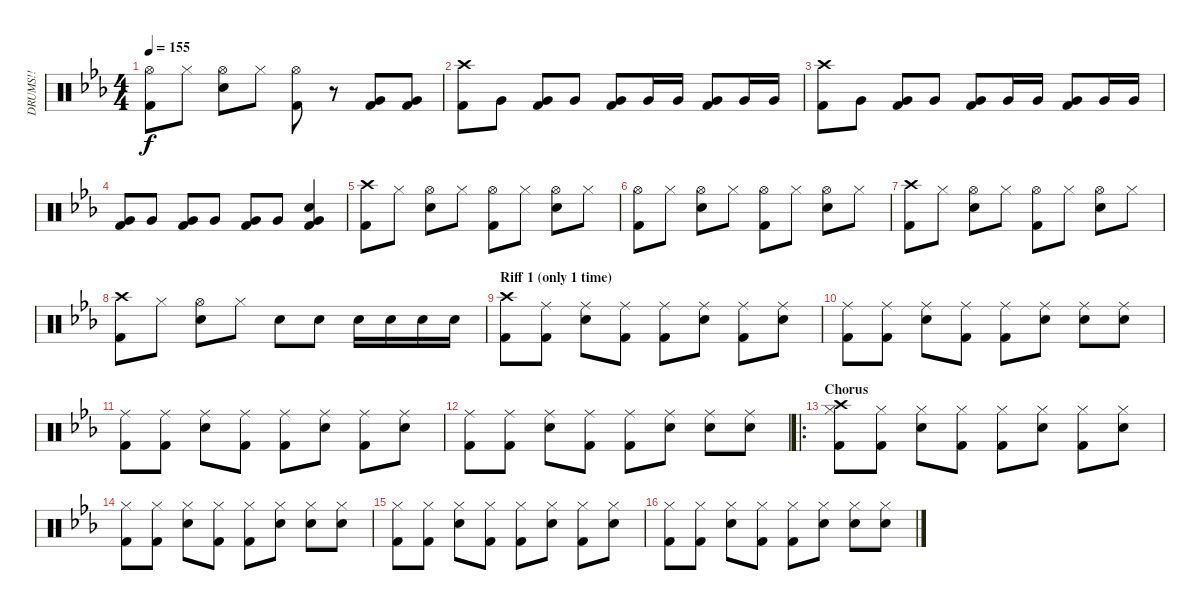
\track ("DRUMS!!" "DRUMS!!") {instrument percussion}
\staff {score}
\articulation defaults
\ts (4 4)
\tempo 155
\clef neutral
\ks eb
("Hi-Hat (open)" "Kick (hit) 2").8{dy f} "Hi-Hat (closed)".8 ("Hi-Hat (open)" "Snare (hit) 2").8 "Hi-Hat (closed)".8 ("Hi-Hat (open)" "Kick (hit) 2").8 r.8 ("Very Low Tom (hit)" "Kick (hit) 2").8 ("Very Low Tom (hit)" "Kick (hit) 2").8 |
("Crash high (hit)" "Kick (hit) 2").8 "Very Low Tom (hit)".8 ("Very Low Tom (hit)" "Kick (hit) 2").8 "Very Low Tom (hit)".8 ("Very Low Tom (hit)" "Kick (hit) 2").8 "Very Low Tom (hit)".16 "Very Low Tom (hit)".16 ("Very Low Tom (hit)" "Kick (hit) 2").8 "Very Low Tom (hit)".16 "Very Low Tom (hit)".16 |
("Crash high (hit)" "Kick (hit) 2").8 "Very Low Tom (hit)".8 ("Very Low Tom (hit)" "Kick (hit) 2").8 "Very Low Tom (hit)".8 ("Very Low Tom (hit)" "Kick (hit) 2").8 "Very Low Tom (hit)".16 "Very Low Tom (hit)".16 ("Very Low Tom (hit)" "Kick (hit) 2").8 "Very Low Tom (hit)".16 "Very Low Tom (hit)".16 |
("Very Low Tom (hit)" "Kick (hit) 2").8 "Very Low Tom (hit)".8 ("Very Low Tom (hit)" "Kick (hit) 2").8 "Very Low Tom (hit)".8 ("Very Low Tom (hit)" "Kick (hit) 2").8 "Very Low Tom (hit)".8 ("Snare (hit) 2" "Very Low Tom (hit)" "Kick (hit) 2").4 |
("Crash high (hit)" "Kick (hit) 2").8 "Hi-Hat (closed)".8 ("Hi-Hat (open)" "Snare (hit) 2").8 "Hi-Hat (closed)".8 ("Hi-Hat (open)" "Kick (hit) 2").8 "Hi-Hat (closed)".8 ("Hi-Hat (open)" "Snare (hit) 2").8 "Hi-Hat (closed)".8 |
("Hi-Hat (open)" "Kick (hit) 2").8 "Hi-Hat (closed)".8 ("Hi-Hat (open)" "Snare (hit) 2").8 "Hi-Hat (closed)".8 ("Hi-Hat (open)" "Kick (hit) 2").8 "Hi-Hat (closed)".8 ("Hi-Hat (open)" "Snare (hit) 2").8 "Hi-Hat (closed)".8 |
("Crash high (hit)" "Kick (hit) 2").8 "Hi-Hat (closed)".8 ("Hi-Hat (open)" "Snare (hit) 2").8 "Hi-Hat (closed)".8 ("Hi-Hat (open)" "Kick (hit) 2").8 "Hi-Hat (closed)".8 ("Hi-Hat (open)" "Snare (hit) 2").8 "Hi-Hat (closed)".8 |
("Crash high (hit)" "Kick (hit) 2").8 "Hi-Hat (closed)".8 ("Hi-Hat (open)" "Snare (hit) 2").8 "Hi-Hat (closed)".8 "Snare (hit) 2".8 "Snare (hit) 2".8 "Snare (hit) 2".16 "Snare (hit) 2".16 "Snare (hit) 2".16 "Snare (hit) 2".16 |
\section ("" "Riff 1 (only 1 time)")
("Crash high (hit)" "Kick (hit) 2").8 ("Ride (middle)" "Kick (hit) 2").8 ("Ride (middle)" "Snare (hit) 2").8 ("Ride (middle)" "Kick (hit) 2").8 ("Ride (middle)" "Kick (hit) 2").8 ("Ride (middle)" "Snare (hit) 2").8 ("Ride (middle)" "Kick (hit) 2").8 ("Ride (middle)" "Snare (hit) 2").8 |
("Ride (middle)" "Kick (hit) 2").8 ("Ride (middle)" "Kick (hit) 2").8 ("Ride (middle)" "Snare (hit) 2").8 ("Ride (middle)" "Kick (hit) 2").8 ("Ride (middle)" "Kick (hit) 2").8 ("Ride (middle)" "Snare (hit) 2").8 ("Ride (middle)" "Snare (hit) 2").8 ("Ride (middle)" "Snare (hit) 2").8 |
("Ride (middle)" "Kick (hit) 2").8 ("Ride (middle)" "Kick (hit) 2").8 ("Ride (middle)" "Snare (hit) 2").8 ("Ride (middle)" "Kick (hit) 2").8 ("Ride (middle)" "Kick (hit) 2").8 ("Ride (middle)" "Snare (hit) 2").8 ("Ride (middle)" "Kick (hit) 2").8 ("Ride (middle)" "Snare (hit) 2").8 |
("Ride (middle)" "Kick (hit) 2").8 ("Ride (middle)" "Kick (hit) 2").8 ("Ride (middle)" "Snare (hit) 2").8 ("Ride (middle)" "Kick (hit) 2").8 ("Ride (middle)" "Kick (hit) 2").8 ("Ride (middle)" "Snare (hit) 2").8 ("Ride (middle)" "Snare (hit) 2").8 ("Ride (middle)" "Snare (hit) 2").8 |
\ro
\section ("" "Chorus")
("Crash high (hit)" "Hi-Hat (closed)" "Kick (hit) 2").8 ("Hi-Hat (closed)" "Kick (hit) 2").8 ("Hi-Hat (closed)" "Snare (hit) 2").8 ("Hi-Hat (closed)" "Kick (hit) 2").8 ("Hi-Hat (closed)" "Kick (hit) 2").8 ("Hi-Hat (closed)" "Snare (hit) 2").8 ("Hi-Hat (closed)" "Kick (hit) 2").8 ("Hi-Hat (closed)" "Snare (hit) 2").8 |
("Hi-Hat (closed)" "Kick (hit) 2").8 ("Hi-Hat (closed)" "Kick (hit) 2").8 ("Hi-Hat (closed)" "Snare (hit) 2").8 ("Hi-Hat (closed)" "Kick (hit) 2").8 ("Hi-Hat (closed)" "Kick (hit) 2").8 ("Hi-Hat (closed)" "Snare (hit) 2").8 ("Hi-Hat (closed)" "Snare (hit) 2").8 ("Hi-Hat (closed)" "Snare (hit) 2").8 |
("Hi-Hat (closed)" "Kick (hit) 2").8 ("Hi-Hat (closed)" "Kick (hit) 2").8 ("Hi-Hat (closed)" "Snare (hit) 2").8 ("Hi-Hat (closed)" "Kick (hit) 2").8 ("Hi-Hat (closed)" "Kick (hit) 2").8 ("Hi-Hat (closed)" "Snare (hit) 2").8 ("Hi-Hat (closed)" "Kick (hit) 2").8 ("Hi-Hat (closed)" "Snare (hit) 2").8 |
("Hi-Hat (closed)" "Kick (hit) 2").8 ("Hi-Hat (closed)" "Kick (hit) 2").8 ("Hi-Hat (closed)" "Snare (hit) 2").8 ("Hi-Hat (closed)" "Kick (hit) 2").8 ("Hi-Hat (closed)" "Kick (hit) 2").8 ("Hi-Hat (closed)" "Snare (hit) 2").8 ("Hi-Hat (closed)" "Snare (hit) 2").8 ("Hi-Hat (closed)" "Snare (hit) 2").8
